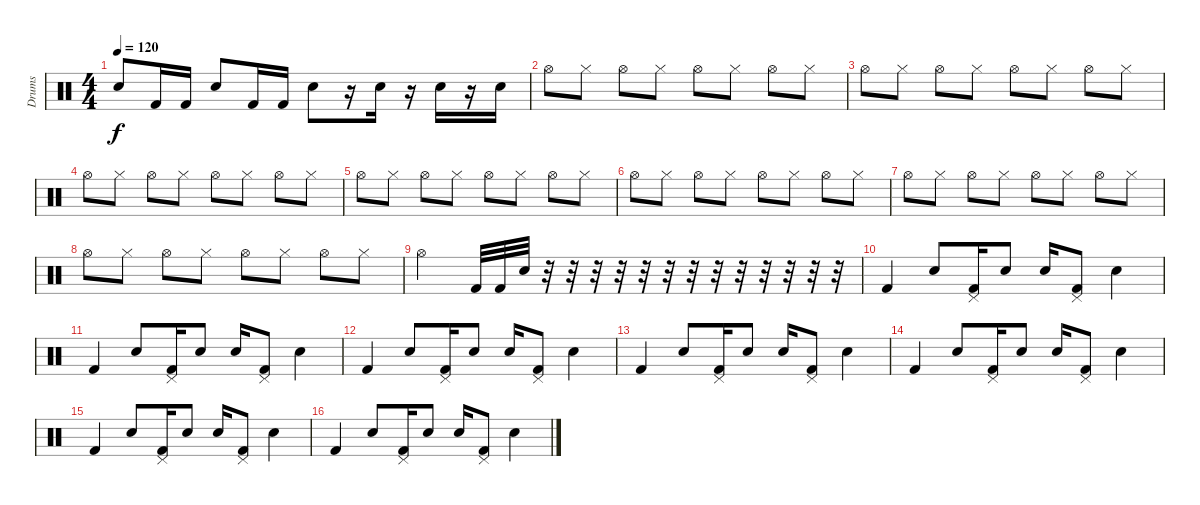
\track ("Drums" "Drums") {instrument percussion}
\staff {score}
\articulation defaults
\ts (4 4)
\tempo 120
\clef neutral
\ks c "Snare (hit) 2".8{dy f} "Kick (hit) 2".16 "Kick (hit) 2".16 "Snare (hit) 2".8 "Kick (hit) 2".16 "Kick (hit) 2".16 "Snare (hit) 2".8
r.16 "Snare (hit) 2".16 r.16 "Snare (hit) 2".16 r.16 "Snare (hit) 2".16 |
"Hi-Hat (open)".8 "Hi-Hat (closed)".8 "Hi-Hat (open)".8 "Hi-Hat (closed)".8 "Hi-Hat (open)".8 "Hi-Hat (closed)".8 "Hi-Hat (open)".8 "Hi-Hat (closed)".8 |
"Hi-Hat (open)".8 "Hi-Hat (closed)".8 "Hi-Hat (open)".8 "Hi-Hat (closed)".8 "Hi-Hat (open)".8 "Hi-Hat (closed)".8 "Hi-Hat (open)".8 "Hi-Hat (closed)".8 |
"Hi-Hat (open)".8 "Hi-Hat (closed)".8 "Hi-Hat (open)".8 "Hi-Hat (closed)".8 "Hi-Hat (open)".8 "Hi-Hat (closed)".8 "Hi-Hat (open)".8 "Hi-Hat (closed)".8 |
"Hi-Hat (open)".8 "Hi-Hat (closed)".8 "Hi-Hat (open)".8 "Hi-Hat (closed)".8 "Hi-Hat (open)".8 "Hi-Hat (closed)".8 "Hi-Hat (open)".8 "Hi-Hat (closed)".8 |
"Hi-Hat (open)".8 "Hi-Hat (closed)".8 "Hi-Hat (open)".8 "Hi-Hat (closed)".8 "Hi-Hat (open)".8 "Hi-Hat (closed)".8 "Hi-Hat (open)".8 "Hi-Hat (closed)".8 |
"Hi-Hat (open)".8 "Hi-Hat (closed)".8 "Hi-Hat (open)".8 "Hi-Hat (closed)".8 "Hi-Hat (open)".8 "Hi-Hat (closed)".8 "Hi-Hat (open)".8 "Hi-Hat (closed)".8 |
"Hi-Hat (open)".8 "Hi-Hat (closed)".8 "Hi-Hat (open)".8 "Hi-Hat (closed)".8 "Hi-Hat (open)".8 "Hi-Hat (closed)".8 "Hi-Hat (open)".8 "Hi-Hat (closed)".8 |
"Hi-Hat (open)".2 "Kick (hit) 2".32 "Kick (hit) 2".32 "Snare (hit) 2".32 r.32 r.32 r.32 r.32 r.32 r.32 r.32 r.32 r.32 r.32 r.32 r.32 r.32 |
"Kick (hit) 2".4 "Snare (hit) 2".8 ("Pedal Hi-Hat (hit)" "Kick (hit) 2").16 "Snare (hit) 2".8 "Snare (hit) 2".16 ("Pedal Hi-Hat (hit)" "Kick (hit) 2").8 "Snare (hit) 2".4 |
"Kick (hit) 2".4 "Snare (hit) 2".8 ("Pedal Hi-Hat (hit)" "Kick (hit) 2").16 "Snare (hit) 2".8 "Snare (hit) 2".16 ("Pedal Hi-Hat (hit)" "Kick (hit) 2").8 "Snare (hit) 2".4 |
"Kick (hit) 2".4 "Snare (hit) 2".8 ("Pedal Hi-Hat (hit)" "Kick (hit) 2").16 "Snare (hit) 2".8 "Snare (hit) 2".16 ("Pedal Hi-Hat (hit)" "Kick (hit) 2").8 "Snare (hit) 2".4 |
"Kick (hit) 2".4 "Snare (hit) 2".8 ("Pedal Hi-Hat (hit)" "Kick (hit) 2").16 "Snare (hit) 2".8 "Snare (hit) 2".16 ("Pedal Hi-Hat (hit)" "Kick (hit) 2").8 "Snare (hit) 2".4 |
"Kick (hit) 2".4 "Snare (hit) 2".8 ("Pedal Hi-Hat (hit)" "Kick (hit) 2").16 "Snare (hit) 2".8 "Snare (hit) 2".16 ("Pedal Hi-Hat (hit)" "Kick (hit) 2").8 "Snare (hit) 2".4 |
"Kick (hit) 2".4 "Snare (hit) 2".8 ("Pedal Hi-Hat (hit)" "Kick (hit) 2").16 "Snare (hit) 2".8 "Snare (hit) 2".16 ("Pedal Hi-Hat (hit)" "Kick (hit) 2").8 "Snare (hit) 2".4 |
"Kick (hit) 2".4 "Snare (hit) 2".8 ("Pedal Hi-Hat (hit)" "Kick (hit) 2").16 "Snare (hit) 2".8 "Snare (hit) 2".16 ("Pedal Hi-Hat (hit)" "Kick (hit) 2").8 "Snare (hit) 2".4
